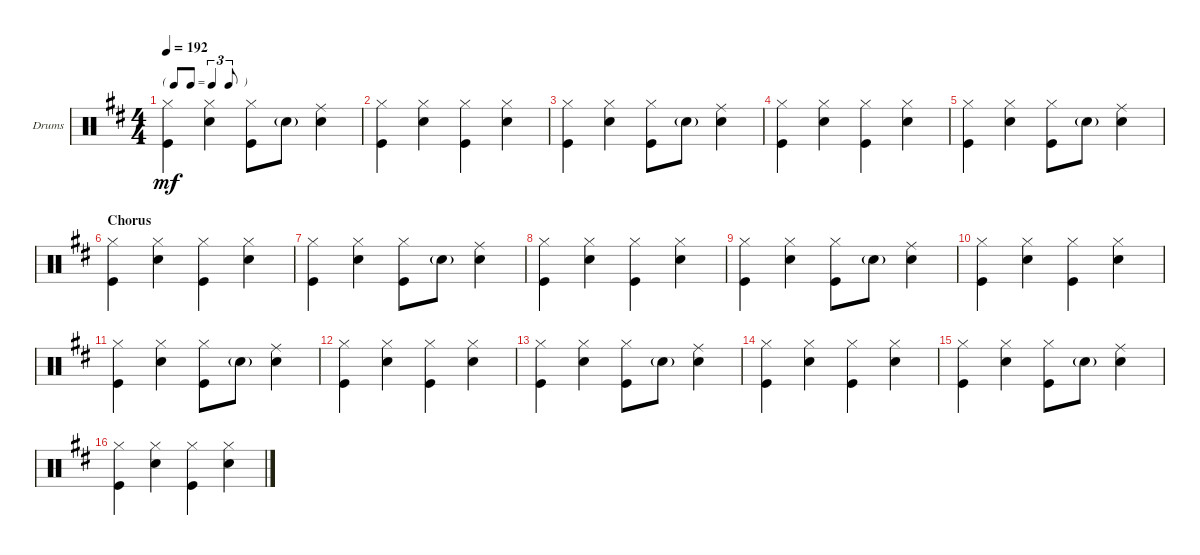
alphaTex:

\defaultSystemsLayout 4
\bracketExtendMode groupsimilarinstruments
\firstSystemTrackNameOrientation horizontal
\otherSystemsTrackNameOrientation horizontal
\track ("Drumkit" "Drums") {instrument percussion}
\staff {score}
\articulation defaults
\ts (4 4)
\tf triplet8th
\tempo 192
\clef neutral
\ks d
("Kick (hit)" "Hi-Hat (closed)").4{dy mf} ("Snare (hit) 2" "Hi-Hat (closed)").4 ("Kick (hit)" "Hi-Hat (closed)").8 "Snare (hit) 2"{g}.8 ("Snare (hit) 2" "Ride (middle)").4 |
("Kick (hit)" "Hi-Hat (closed)").4 ("Snare (hit) 2" "Hi-Hat (closed)").4 ("Kick (hit)" "Hi-Hat (closed)").4 ("Snare (hit) 2" "Hi-Hat (closed)").4 |
("Kick (hit)" "Hi-Hat (closed)").4 ("Snare (hit) 2" "Hi-Hat (closed)").4 ("Kick (hit)" "Hi-Hat (closed)").8 "Snare (hit) 2"{g}.8 ("Snare (hit) 2" "Ride (middle)").4 |
("Kick (hit)" "Hi-Hat (closed)").4 ("Snare (hit) 2" "Hi-Hat (closed)").4 ("Kick (hit)" "Hi-Hat (closed)").4 ("Snare (hit) 2" "Hi-Hat (closed)").4 |
("Kick (hit)" "Hi-Hat (closed)").4 ("Snare (hit) 2" "Hi-Hat (closed)").4 ("Kick (hit)" "Hi-Hat (closed)").8 "Snare (hit) 2"{g}.8 ("Snare (hit) 2" "Ride (middle)").4 |
\section ("" "Chorus")
("Kick (hit)" "Hi-Hat (closed)").4 ("Snare (hit) 2" "Hi-Hat (closed)").4 ("Kick (hit)" "Hi-Hat (closed)").4 ("Snare (hit) 2" "Hi-Hat (closed)").4 |
("Kick (hit)" "Hi-Hat (closed)").4 ("Snare (hit) 2" "Hi-Hat (closed)").4 ("Kick (hit)" "Hi-Hat (closed)").8 "Snare (hit) 2"{g}.8 ("Snare (hit) 2" "Ride (middle)").4 |
("Kick (hit)" "Hi-Hat (closed)").4 ("Snare (hit) 2" "Hi-Hat (closed)").4 ("Kick (hit)" "Hi-Hat (closed)").4 ("Snare (hit) 2" "Hi-Hat (closed)").4 |
("Kick (hit)" "Hi-Hat (closed)").4 ("Snare (hit) 2" "Hi-Hat (closed)").4 ("Kick (hit)" "Hi-Hat (closed)").8 "Snare (hit) 2"{g}.8 ("Snare (hit) 2" "Ride (middle)").4 |
("Kick (hit)" "Hi-Hat (closed)").4 ("Snare (hit) 2" "Hi-Hat (closed)").4 ("Kick (hit)" "Hi-Hat (closed)").4 ("Snare (hit) 2" "Hi-Hat (closed)").4 |
("Kick (hit)" "Hi-Hat (closed)").4 ("Snare (hit) 2" "Hi-Hat (closed)").4 ("Kick (hit)" "Hi-Hat (closed)").8 "Snare (hit) 2"{g}.8 ("Snare (hit) 2" "Ride (middle)").4 |
("Kick (hit)" "Hi-Hat (closed)").4 ("Snare (hit) 2" "Hi-Hat (closed)").4 ("Kick (hit)" "Hi-Hat (closed)").4 ("Snare (hit) 2" "Hi-Hat (closed)").4 |
("Kick (hit)" "Hi-Hat (closed)").4 ("Snare (hit) 2" "Hi-Hat (closed)").4 ("Kick (hit)" "Hi-Hat (closed)").8 "Snare (hit) 2"{g}.8 ("Snare (hit) 2" "Ride (middle)").4 |
("Kick (hit)" "Hi-Hat (closed)").4 ("Snare (hit) 2" "Hi-Hat (closed)").4 ("Kick (hit)" "Hi-Hat (closed)").4 ("Snare (hit) 2" "Hi-Hat (closed)").4 |
("Kick (hit)" "Hi-Hat (closed)").4 ("Snare (hit) 2" "Hi-Hat (closed)").4 ("Kick (hit)" "Hi-Hat (closed)").8 "Snare (hit) 2"{g}.8 ("Snare (hit) 2" "Ride (middle)").4 |
("Kick (hit)" "Hi-Hat (closed)").4 ("Snare (hit) 2" "Hi-Hat (closed)").4 ("Kick (hit)" "Hi-Hat (closed)").4 ("Snare (hit) 2" "Hi-Hat (closed)").4
